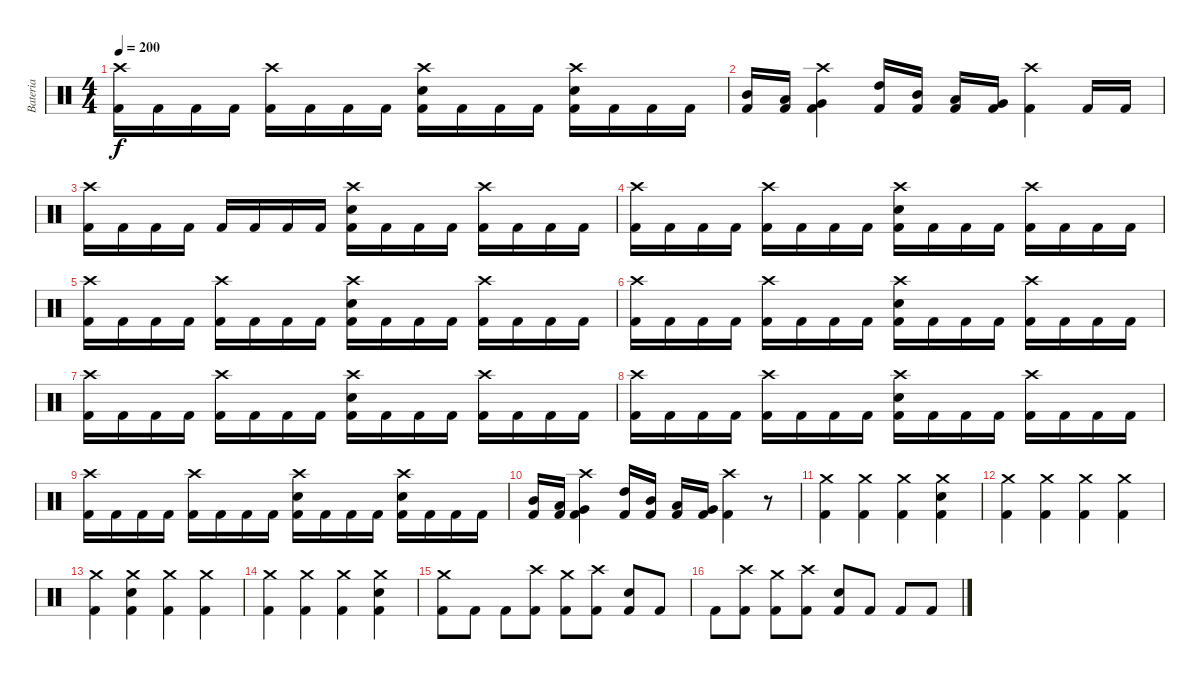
\track ("Bateria" "Bateria") {instrument percussion}
\staff {score}
\articulation defaults
\ts (4 4)
\tempo 200
\clef neutral
\ks c
("Crash high (hit)" "Kick (hit) 2").16{dy f} "Kick (hit) 2".16 "Kick (hit) 2".16 "Kick (hit) 2".16 ("Crash high (hit)" "Kick (hit) 2").16 "Kick (hit) 2".16 "Kick (hit) 2".16 "Kick (hit) 2".16 ("Crash high (hit)" "Electric Snare (hit)" "Kick (hit) 2").16 "Kick (hit) 2".16 "Kick (hit) 2".16 "Kick (hit) 2".16 ("Crash high (hit)" "Electric Snare (hit)" "Kick (hit) 2").16 "Kick (hit) 2".16 "Kick (hit) 2".16 "Kick (hit) 2".16 |
("Mid Tom (hit)" "Kick (hit) 2").16 ("Low Tom (hit)" "Kick (hit) 2").16 ("Crash high (hit)" "Very Low Tom (hit)" "Kick (hit) 2").4 ("High Tom (hit)" "Kick (hit) 2").16 ("Mid Tom (hit)" "Kick (hit) 2").16 ("Low Tom (hit)" "Kick (hit) 2").16 ("Very Low Tom (hit)" "Kick (hit) 2").16 ("Crash high (hit)" "Kick (hit) 2").4 "Kick (hit) 2".16 "Kick (hit) 2".16 |
("Crash high (hit)" "Kick (hit) 2").16 "Kick (hit) 2".16 "Kick (hit) 2".16 "Kick (hit) 2".16 "Kick (hit) 2".16 "Kick (hit) 2".16 "Kick (hit) 2".16 "Kick (hit) 2".16 ("Crash high (hit)" "Electric Snare (hit)" "Kick (hit) 2").16 "Kick (hit) 2".16 "Kick (hit) 2".16 "Kick (hit) 2".16 ("Crash high (hit)" "Kick (hit) 2").16 "Kick (hit) 2".16 "Kick (hit) 2".16 "Kick (hit) 2".16 |
("Crash high (hit)" "Kick (hit) 2").16 "Kick (hit) 2".16 "Kick (hit) 2".16 "Kick (hit) 2".16 ("Crash high (hit)" "Kick (hit) 2").16 "Kick (hit) 2".16 "Kick (hit) 2".16 "Kick (hit) 2".16 ("Crash high (hit)" "Electric Snare (hit)" "Kick (hit) 2").16 "Kick (hit) 2".16 "Kick (hit) 2".16 "Kick (hit) 2".16 ("Crash high (hit)" "Kick (hit) 2").16 "Kick (hit) 2".16 "Kick (hit) 2".16 "Kick (hit) 2".16 |
("Crash high (hit)" "Kick (hit) 2").16 "Kick (hit) 2".16 "Kick (hit) 2".16 "Kick (hit) 2".16 ("Crash high (hit)" "Kick (hit) 2").16 "Kick (hit) 2".16 "Kick (hit) 2".16 "Kick (hit) 2".16 ("Crash high (hit)" "Electric Snare (hit)" "Kick (hit) 2").16 "Kick (hit) 2".16 "Kick (hit) 2".16 "Kick (hit) 2".16 ("Crash high (hit)" "Kick (hit) 2").16 "Kick (hit) 2".16 "Kick (hit) 2".16 "Kick (hit) 2".16 |
("Crash high (hit)" "Kick (hit) 2").16 "Kick (hit) 2".16 "Kick (hit) 2".16 "Kick (hit) 2".16 ("Crash high (hit)" "Kick (hit) 2").16 "Kick (hit) 2".16 "Kick (hit) 2".16 "Kick (hit) 2".16 ("Crash high (hit)" "Electric Snare (hit)" "Kick (hit) 2").16 "Kick (hit) 2".16 "Kick (hit) 2".16 "Kick (hit) 2".16 ("Crash high (hit)" "Kick (hit) 2").16 "Kick (hit) 2".16 "Kick (hit) 2".16 "Kick (hit) 2".16 |
("Crash high (hit)" "Kick (hit) 2").16 "Kick (hit) 2".16 "Kick (hit) 2".16 "Kick (hit) 2".16 ("Crash high (hit)" "Kick (hit) 2").16 "Kick (hit) 2".16 "Kick (hit) 2".16 "Kick (hit) 2".16 ("Crash high (hit)" "Electric Snare (hit)" "Kick (hit) 2").16 "Kick (hit) 2".16 "Kick (hit) 2".16 "Kick (hit) 2".16 ("Crash high (hit)" "Kick (hit) 2").16 "Kick (hit) 2".16 "Kick (hit) 2".16 "Kick (hit) 2".16 |
("Crash high (hit)" "Kick (hit) 2").16 "Kick (hit) 2".16 "Kick (hit) 2".16 "Kick (hit) 2".16 ("Crash high (hit)" "Kick (hit) 2").16 "Kick (hit) 2".16 "Kick (hit) 2".16 "Kick (hit) 2".16 ("Crash high (hit)" "Electric Snare (hit)" "Kick (hit) 2").16 "Kick (hit) 2".16 "Kick (hit) 2".16 "Kick (hit) 2".16 ("Crash high (hit)" "Kick (hit) 2").16 "Kick (hit) 2".16 "Kick (hit) 2".16 "Kick (hit) 2".16 |
("Crash high (hit)" "Kick (hit) 2").16 "Kick (hit) 2".16 "Kick (hit) 2".16 "Kick (hit) 2".16 ("Crash high (hit)" "Kick (hit) 2").16 "Kick (hit) 2".16 "Kick (hit) 2".16 "Kick (hit) 2".16 ("Crash high (hit)" "Electric Snare (hit)" "Kick (hit) 2").16 "Kick (hit) 2".16 "Kick (hit) 2".16 "Kick (hit) 2".16 ("Crash high (hit)" "Electric Snare (hit)" "Kick (hit) 2").16 "Kick (hit) 2".16 "Kick (hit) 2".16 "Kick (hit) 2".16 |
("Mid Tom (hit)" "Kick (hit) 2").16 ("Low Tom (hit)" "Kick (hit) 2").16 ("Crash high (hit)" "Very Low Tom (hit)" "Kick (hit) 2").4 ("High Tom (hit)" "Kick (hit) 2").16 ("Mid Tom (hit)" "Kick (hit) 2").16 ("Low Tom (hit)" "Kick (hit) 2").16 ("Very Low Tom (hit)" "Kick (hit) 2").16 ("Crash high (hit)" "Kick (hit) 2").4 r.8 |
("Crash medium (hit)" "Kick (hit) 2").4 ("Crash medium (hit)" "Kick (hit) 2").4 ("Crash medium (hit)" "Kick (hit) 2").4 ("Crash medium (hit)" "Electric Snare (hit)" "Kick (hit) 2").4 |
("Crash medium (hit)" "Kick (hit) 2").4 ("Crash medium (hit)" "Kick (hit) 2").4 ("Crash medium (hit)" "Kick (hit) 2").4 ("Crash medium (hit)" "Kick (hit) 2").4 |
("Crash medium (hit)" "Kick (hit) 2").4 ("Crash medium (hit)" "Electric Snare (hit)" "Kick (hit) 2").4 ("Crash medium (hit)" "Kick (hit) 2").4 ("Crash medium (hit)" "Kick (hit) 2").4 |
("Crash medium (hit)" "Kick (hit) 2").4 ("Crash medium (hit)" "Kick (hit) 2").4 ("Crash medium (hit)" "Kick (hit) 2").4 ("Crash medium (hit)" "Electric Snare (hit)" "Kick (hit) 2").4 |
("Crash medium (hit)" "Kick (hit) 2").8 "Kick (hit) 2".8 "Kick (hit) 2".8 ("Crash high (hit)" "Kick (hit) 2").8 ("Crash medium (hit)" "Kick (hit) 2").8 ("Crash high (hit)" "Kick (hit) 2").8 ("Electric Snare (hit)" "Kick (hit) 2").8 "Kick (hit) 2".8 |
"Kick (hit) 2".8 ("Crash high (hit)" "Kick (hit) 2").8 ("Crash medium (hit)" "Kick (hit) 2").8 ("Crash high (hit)" "Kick (hit) 2").8 ("Electric Snare (hit)" "Kick (hit) 2").8 "Kick (hit) 2".8 "Kick (hit) 2".8 "Kick (hit) 2".8
